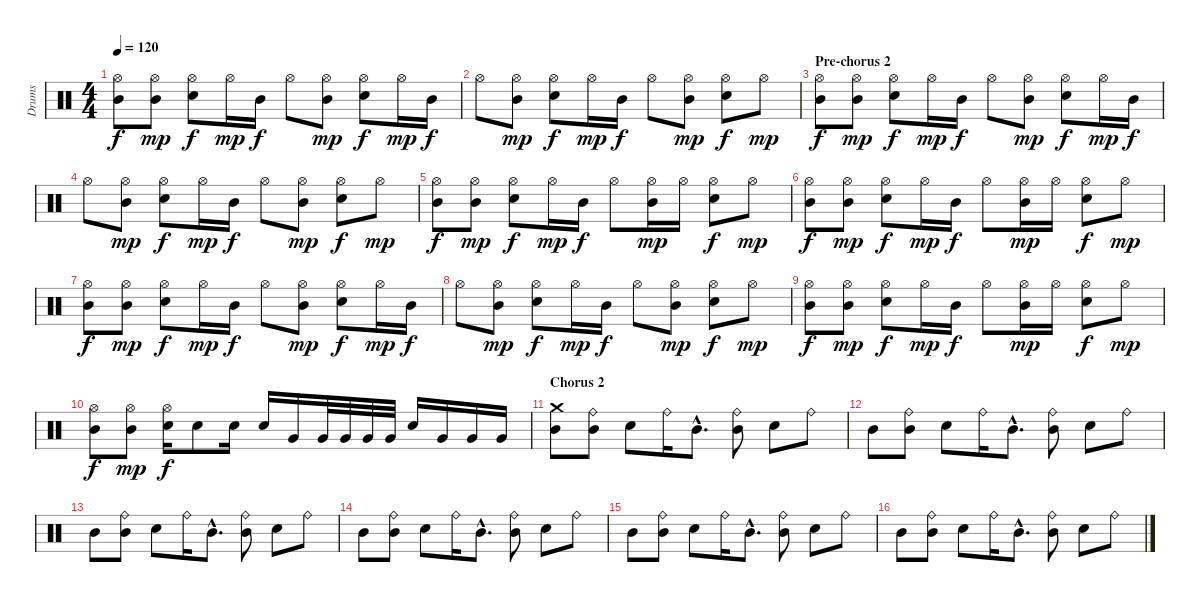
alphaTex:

\track ("Drums" "Drums") {instrument percussion}
\staff {score}
\articulation defaults
\ts (4 4)
\tempo 120
\clef neutral
\ks c
("Hi-Hat (open)" "Mid Tom (hit)").8{dy f} ("Hi-Hat (open)" "Mid Tom (hit)").8{dy mp} ("Hi-Hat (open)" "Electric Snare (hit)").8{dy f} "Hi-Hat (open)".16{dy mp} "Mid Tom (hit)".16{dy f} "Hi-Hat (open)".8 ("Hi-Hat (open)" "Mid Tom (hit)").8{dy mp} ("Hi-Hat (open)" "Electric Snare (hit)").8{dy f} "Hi-Hat (open)".16{dy mp} "Mid Tom (hit)".16{dy f} |
"Hi-Hat (open)".8 ("Hi-Hat (open)" "Mid Tom (hit)").8{dy mp} ("Hi-Hat (open)" "Electric Snare (hit)").8{dy f} "Hi-Hat (open)".16{dy mp} "Mid Tom (hit)".16{dy f} "Hi-Hat (open)".8 ("Hi-Hat (open)" "Mid Tom (hit)").8{dy mp} ("Hi-Hat (open)" "Electric Snare (hit)").8{dy f} "Hi-Hat (open)".8{dy mp} |
\section ("" "Pre-chorus 2")
("Hi-Hat (open)" "Mid Tom (hit)").8{dy f} ("Hi-Hat (open)" "Mid Tom (hit)").8{dy mp} ("Hi-Hat (open)" "Electric Snare (hit)").8{dy f} "Hi-Hat (open)".16{dy mp} "Mid Tom (hit)".16{dy f} "Hi-Hat (open)".8 ("Hi-Hat (open)" "Mid Tom (hit)").8{dy mp} ("Hi-Hat (open)" "Electric Snare (hit)").8{dy f} "Hi-Hat (open)".16{dy mp} "Mid Tom (hit)".16{dy f} |
"Hi-Hat (open)".8 ("Hi-Hat (open)" "Mid Tom (hit)").8{dy mp} ("Hi-Hat (open)" "Electric Snare (hit)").8{dy f} "Hi-Hat (open)".16{dy mp} "Mid Tom (hit)".16{dy f} "Hi-Hat (open)".8 ("Hi-Hat (open)" "Mid Tom (hit)").8{dy mp} ("Hi-Hat (open)" "Electric Snare (hit)").8{dy f} "Hi-Hat (open)".8{dy mp} |
("Hi-Hat (open)" "Mid Tom (hit)").8{dy f} ("Hi-Hat (open)" "Mid Tom (hit)").8{dy mp} ("Hi-Hat (open)" "Electric Snare (hit)").8{dy f} "Hi-Hat (open)".16{dy mp} "Mid Tom (hit)".16{dy f} "Hi-Hat (open)".8 ("Hi-Hat (open)" "Mid Tom (hit)").16{dy mp} "Hi-Hat (open)".16 ("Hi-Hat (open)" "Electric Snare (hit)").8{dy f} "Hi-Hat (open)".8{dy mp} |
("Hi-Hat (open)" "Mid Tom (hit)").8{dy f} ("Hi-Hat (open)" "Mid Tom (hit)").8{dy mp} ("Hi-Hat (open)" "Electric Snare (hit)").8{dy f} "Hi-Hat (open)".16{dy mp} "Mid Tom (hit)".16{dy f} "Hi-Hat (open)".8 ("Hi-Hat (open)" "Mid Tom (hit)").16{dy mp} "Hi-Hat (open)".16 ("Hi-Hat (open)" "Electric Snare (hit)").8{dy f} "Hi-Hat (open)".8{dy mp} |
("Hi-Hat (open)" "Mid Tom (hit)").8{dy f} ("Hi-Hat (open)" "Mid Tom (hit)").8{dy mp} ("Hi-Hat (open)" "Electric Snare (hit)").8{dy f} "Hi-Hat (open)".16{dy mp} "Mid Tom (hit)".16{dy f} "Hi-Hat (open)".8 ("Hi-Hat (open)" "Mid Tom (hit)").8{dy mp} ("Hi-Hat (open)" "Electric Snare (hit)").8{dy f} "Hi-Hat (open)".16{dy mp} "Mid Tom (hit)".16{dy f} |
"Hi-Hat (open)".8 ("Hi-Hat (open)" "Mid Tom (hit)").8{dy mp} ("Hi-Hat (open)" "Electric Snare (hit)").8{dy f} "Hi-Hat (open)".16{dy mp} "Mid Tom (hit)".16{dy f} "Hi-Hat (open)".8 ("Hi-Hat (open)" "Mid Tom (hit)").8{dy mp} ("Hi-Hat (open)" "Electric Snare (hit)").8{dy f} "Hi-Hat (open)".8{dy mp} |
("Hi-Hat (open)" "Mid Tom (hit)").8{dy f} ("Hi-Hat (open)" "Mid Tom (hit)").8{dy mp} ("Hi-Hat (open)" "Electric Snare (hit)").8{dy f} "Hi-Hat (open)".16{dy mp} "Mid Tom (hit)".16{dy f} "Hi-Hat (open)".8 ("Hi-Hat (open)" "Mid Tom (hit)").16{dy mp} "Hi-Hat (open)".16 ("Hi-Hat (open)" "Electric Snare (hit)").8{dy f} "Hi-Hat (open)".8{dy mp} |
("Hi-Hat (open)" "Mid Tom (hit)").8{dy f} ("Hi-Hat (open)" "Mid Tom (hit)").8{dy mp} ("Hi-Hat (open)" "Electric Snare (hit)").16{dy f} "Electric Snare (hit)".8 "Electric Snare (hit)".16 "Electric Snare (hit)".16 "Very Low Tom (hit)".16 "Very Low Tom (hit)".32 "Very Low Tom (hit)".32 "Very Low Tom (hit)".32 "Very Low Tom (hit)".32 "Electric Snare (hit)".16 "Very Low Tom (hit)".16 "Very Low Tom (hit)".16 "Very Low Tom (hit)".16 |
\section ("" "Chorus 2")
("Crash medium (hit)" "Mid Tom (hit)").8 ("Ride (bell)" "Mid Tom (hit)").8 "Electric Snare (hit)".8 "Ride (bell)".16 "Mid Tom (hit)"{hac}.8{d} ("Ride (bell)" "Mid Tom (hit)").8 "Electric Snare (hit)".8 "Ride (bell)".8 |
"Mid Tom (hit)".8 ("Ride (bell)" "Mid Tom (hit)").8 "Electric Snare (hit)".8 "Ride (bell)".16 "Mid Tom (hit)"{hac}.8{d} ("Ride (bell)" "Mid Tom (hit)").8 "Electric Snare (hit)".8 "Ride (bell)".8 |
"Mid Tom (hit)".8 ("Ride (bell)" "Mid Tom (hit)").8 "Electric Snare (hit)".8 "Ride (bell)".16 "Mid Tom (hit)"{hac}.8{d} ("Ride (bell)" "Mid Tom (hit)").8 "Electric Snare (hit)".8 "Ride (bell)".8 |
"Mid Tom (hit)".8 ("Ride (bell)" "Mid Tom (hit)").8 "Electric Snare (hit)".8 "Ride (bell)".16 "Mid Tom (hit)"{hac}.8{d} ("Ride (bell)" "Mid Tom (hit)").8 "Electric Snare (hit)".8 "Ride (bell)".8 |
"Mid Tom (hit)".8 ("Ride (bell)" "Mid Tom (hit)").8 "Electric Snare (hit)".8 "Ride (bell)".16 "Mid Tom (hit)"{hac}.8{d} ("Ride (bell)" "Mid Tom (hit)").8 "Electric Snare (hit)".8 "Ride (bell)".8 |
"Mid Tom (hit)".8 ("Ride (bell)" "Mid Tom (hit)").8 "Electric Snare (hit)".8 "Ride (bell)".16 "Mid Tom (hit)"{hac}.8{d} ("Ride (bell)" "Mid Tom (hit)").8 "Electric Snare (hit)".8 "Ride (bell)".8
